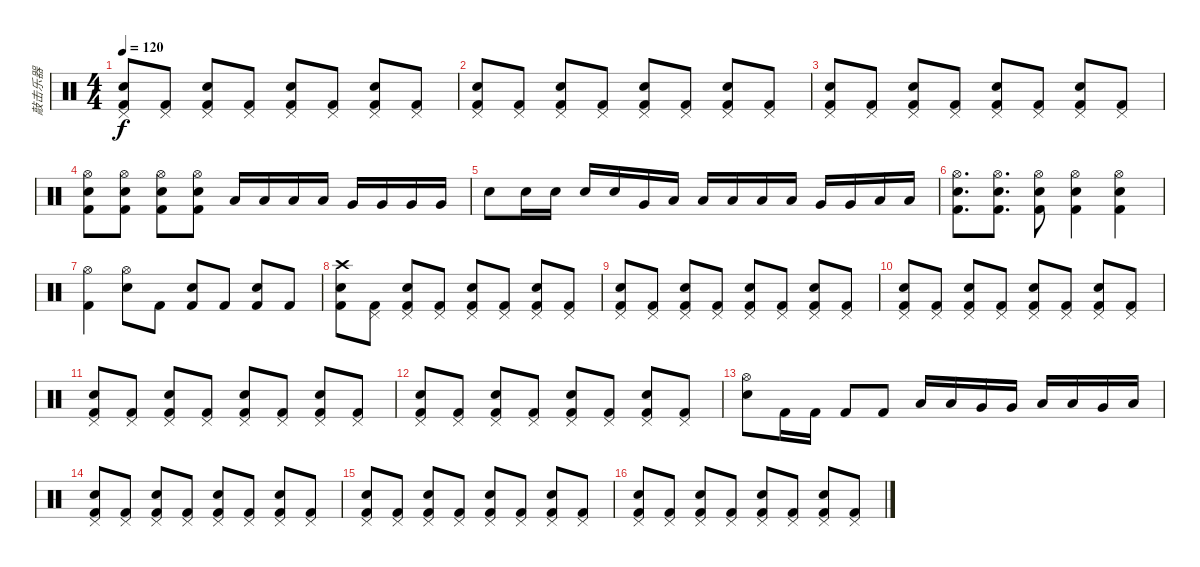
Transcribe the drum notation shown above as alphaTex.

\track ("敲击乐器" "敲击乐器") {instrument percussion}
\staff {score}
\articulation defaults
\ts (4 4)
\tempo 120
\clef neutral
\ks c
("Pedal Hi-Hat (hit)" "Snare (hit) 2" "Kick (hit) 2").8{dy f} ("Pedal Hi-Hat (hit)" "Kick (hit) 2").8 ("Pedal Hi-Hat (hit)" "Snare (hit) 2" "Kick (hit) 2").8 ("Pedal Hi-Hat (hit)" "Kick (hit) 2").8 ("Pedal Hi-Hat (hit)" "Snare (hit) 2" "Kick (hit) 2").8 ("Pedal Hi-Hat (hit)" "Kick (hit) 2").8 ("Pedal Hi-Hat (hit)" "Snare (hit) 2" "Kick (hit) 2").8 ("Pedal Hi-Hat (hit)" "Kick (hit) 2").8 |
("Pedal Hi-Hat (hit)" "Snare (hit) 2" "Kick (hit) 2").8 ("Pedal Hi-Hat (hit)" "Kick (hit) 2").8 ("Pedal Hi-Hat (hit)" "Snare (hit) 2" "Kick (hit) 2").8 ("Pedal Hi-Hat (hit)" "Kick (hit) 2").8 ("Pedal Hi-Hat (hit)" "Snare (hit) 2" "Kick (hit) 2").8 ("Pedal Hi-Hat (hit)" "Kick (hit) 2").8 ("Pedal Hi-Hat (hit)" "Snare (hit) 2" "Kick (hit) 2").8 ("Pedal Hi-Hat (hit)" "Kick (hit) 2").8 |
("Pedal Hi-Hat (hit)" "Snare (hit) 2" "Kick (hit) 2").8 ("Pedal Hi-Hat (hit)" "Kick (hit) 2").8 ("Pedal Hi-Hat (hit)" "Snare (hit) 2" "Kick (hit) 2").8 ("Pedal Hi-Hat (hit)" "Kick (hit) 2").8 ("Pedal Hi-Hat (hit)" "Snare (hit) 2" "Kick (hit) 2").8 ("Pedal Hi-Hat (hit)" "Kick (hit) 2").8 ("Pedal Hi-Hat (hit)" "Snare (hit) 2" "Kick (hit) 2").8 ("Pedal Hi-Hat (hit)" "Kick (hit) 2").8 |
("Hi-Hat (open)" "Snare (hit) 2" "Kick (hit) 2").8 ("Hi-Hat (open)" "Snare (hit) 2" "Kick (hit) 2").8 ("Hi-Hat (open)" "Snare (hit) 2" "Kick (hit) 2").8 ("Hi-Hat (open)" "Snare (hit) 2" "Kick (hit) 2").8 "Low Tom (hit)".16 "Low Tom (hit)".16 "Low Tom (hit)".16 "Low Tom (hit)".16 "Very Low Tom (hit)".16 "Very Low Tom (hit)".16 "Very Low Tom (hit)".16 "Very Low Tom (hit)".16 |
"Snare (hit) 2".8 "Snare (hit) 2".16 "Snare (hit) 2".16 "Snare (hit) 2".16 "Snare (hit) 2".16 "Very Low Tom (hit)".16 "Low Floor Tom (hit)".16 "Low Tom (hit)".16 "Low Tom (hit)".16 "Low Tom (hit)".16 "Low Tom (hit)".16 "Very Low Tom (hit)".16 "Very Low Tom (hit)".16 "Low Floor Tom (hit)".16 "Low Floor Tom (hit)".16 |
("Hi-Hat (open)" "Snare (hit) 2" "Kick (hit) 2").8{d} ("Hi-Hat (open)" "Snare (hit) 2" "Kick (hit) 2").8{d} ("Hi-Hat (open)" "Snare (hit) 2" "Kick (hit) 2").8 ("Hi-Hat (open)" "Snare (hit) 2" "Kick (hit) 2").4 ("Hi-Hat (open)" "Snare (hit) 2" "Kick (hit) 2").4 |
("Hi-Hat (open)" "Kick (hit) 2").4 ("Hi-Hat (open)" "Snare (hit) 2").8 "Kick (hit) 2".8 ("Snare (hit) 2" "Kick (hit) 2").8 "Kick (hit) 2".8 ("Snare (hit) 2" "Kick (hit) 2").8 "Kick (hit) 2".8 |
("Crash high (hit)" "Snare (hit) 2" "Kick (hit) 2").8 ("Pedal Hi-Hat (hit)" "Kick (hit) 2").8 ("Pedal Hi-Hat (hit)" "Snare (hit) 2" "Kick (hit) 2").8 ("Pedal Hi-Hat (hit)" "Kick (hit) 2").8 ("Pedal Hi-Hat (hit)" "Snare (hit) 2" "Kick (hit) 2").8 ("Pedal Hi-Hat (hit)" "Kick (hit) 2").8 ("Pedal Hi-Hat (hit)" "Snare (hit) 2" "Kick (hit) 2").8 ("Pedal Hi-Hat (hit)" "Kick (hit) 2").8 |
("Pedal Hi-Hat (hit)" "Snare (hit) 2" "Kick (hit) 2").8 ("Pedal Hi-Hat (hit)" "Kick (hit) 2").8 ("Pedal Hi-Hat (hit)" "Snare (hit) 2" "Kick (hit) 2").8 ("Pedal Hi-Hat (hit)" "Kick (hit) 2").8 ("Pedal Hi-Hat (hit)" "Snare (hit) 2" "Kick (hit) 2").8 ("Pedal Hi-Hat (hit)" "Kick (hit) 2").8 ("Pedal Hi-Hat (hit)" "Snare (hit) 2" "Kick (hit) 2").8 ("Pedal Hi-Hat (hit)" "Kick (hit) 2").8 |
("Pedal Hi-Hat (hit)" "Snare (hit) 2" "Kick (hit) 2").8 ("Pedal Hi-Hat (hit)" "Kick (hit) 2").8 ("Pedal Hi-Hat (hit)" "Snare (hit) 2" "Kick (hit) 2").8 ("Pedal Hi-Hat (hit)" "Kick (hit) 2").8 ("Pedal Hi-Hat (hit)" "Snare (hit) 2" "Kick (hit) 2").8 ("Pedal Hi-Hat (hit)" "Kick (hit) 2").8 ("Pedal Hi-Hat (hit)" "Snare (hit) 2" "Kick (hit) 2").8 ("Pedal Hi-Hat (hit)" "Kick (hit) 2").8 |
("Pedal Hi-Hat (hit)" "Snare (hit) 2" "Kick (hit) 2").8 ("Pedal Hi-Hat (hit)" "Kick (hit) 2").8 ("Pedal Hi-Hat (hit)" "Snare (hit) 2" "Kick (hit) 2").8 ("Pedal Hi-Hat (hit)" "Kick (hit) 2").8 ("Pedal Hi-Hat (hit)" "Snare (hit) 2" "Kick (hit) 2").8 ("Pedal Hi-Hat (hit)" "Kick (hit) 2").8 ("Pedal Hi-Hat (hit)" "Snare (hit) 2" "Kick (hit) 2").8 ("Pedal Hi-Hat (hit)" "Kick (hit) 2").8 |
("Pedal Hi-Hat (hit)" "Snare (hit) 2" "Kick (hit) 2").8 ("Pedal Hi-Hat (hit)" "Kick (hit) 2").8 ("Pedal Hi-Hat (hit)" "Snare (hit) 2" "Kick (hit) 2").8 ("Pedal Hi-Hat (hit)" "Kick (hit) 2").8 ("Pedal Hi-Hat (hit)" "Snare (hit) 2" "Kick (hit) 2").8 ("Pedal Hi-Hat (hit)" "Kick (hit) 2").8 ("Pedal Hi-Hat (hit)" "Snare (hit) 2" "Kick (hit) 2").8 ("Pedal Hi-Hat (hit)" "Kick (hit) 2").8 |
("Hi-Hat (open)" "Snare (hit) 2").8 "Kick (hit) 2".16 "Kick (hit) 2".16 "Kick (hit) 2".8 "Kick (hit) 2".8 "Low Tom (hit)".16 "Low Tom (hit)".16 "Very Low Tom (hit)".16 "Very Low Tom (hit)".16 "Low Tom (hit)".16 "Low Tom (hit)".16 "Very Low Tom (hit)".16 "Low Floor Tom (hit)".16 |
("Pedal Hi-Hat (hit)" "Snare (hit) 2" "Kick (hit) 2").8 ("Pedal Hi-Hat (hit)" "Kick (hit) 2").8 ("Pedal Hi-Hat (hit)" "Snare (hit) 2" "Kick (hit) 2").8 ("Pedal Hi-Hat (hit)" "Kick (hit) 2").8 ("Pedal Hi-Hat (hit)" "Snare (hit) 2" "Kick (hit) 2").8 ("Pedal Hi-Hat (hit)" "Kick (hit) 2").8 ("Pedal Hi-Hat (hit)" "Snare (hit) 2" "Kick (hit) 2").8 ("Pedal Hi-Hat (hit)" "Kick (hit) 2").8 |
("Pedal Hi-Hat (hit)" "Snare (hit) 2" "Kick (hit) 2").8 ("Pedal Hi-Hat (hit)" "Kick (hit) 2").8 ("Pedal Hi-Hat (hit)" "Snare (hit) 2" "Kick (hit) 2").8 ("Pedal Hi-Hat (hit)" "Kick (hit) 2").8 ("Pedal Hi-Hat (hit)" "Snare (hit) 2" "Kick (hit) 2").8 ("Pedal Hi-Hat (hit)" "Kick (hit) 2").8 ("Pedal Hi-Hat (hit)" "Snare (hit) 2" "Kick (hit) 2").8 ("Pedal Hi-Hat (hit)" "Kick (hit) 2").8 |
("Pedal Hi-Hat (hit)" "Snare (hit) 2" "Kick (hit) 2").8 ("Pedal Hi-Hat (hit)" "Kick (hit) 2").8 ("Pedal Hi-Hat (hit)" "Snare (hit) 2" "Kick (hit) 2").8 ("Pedal Hi-Hat (hit)" "Kick (hit) 2").8 ("Pedal Hi-Hat (hit)" "Snare (hit) 2" "Kick (hit) 2").8 ("Pedal Hi-Hat (hit)" "Kick (hit) 2").8 ("Pedal Hi-Hat (hit)" "Snare (hit) 2" "Kick (hit) 2").8 ("Pedal Hi-Hat (hit)" "Kick (hit) 2").8
